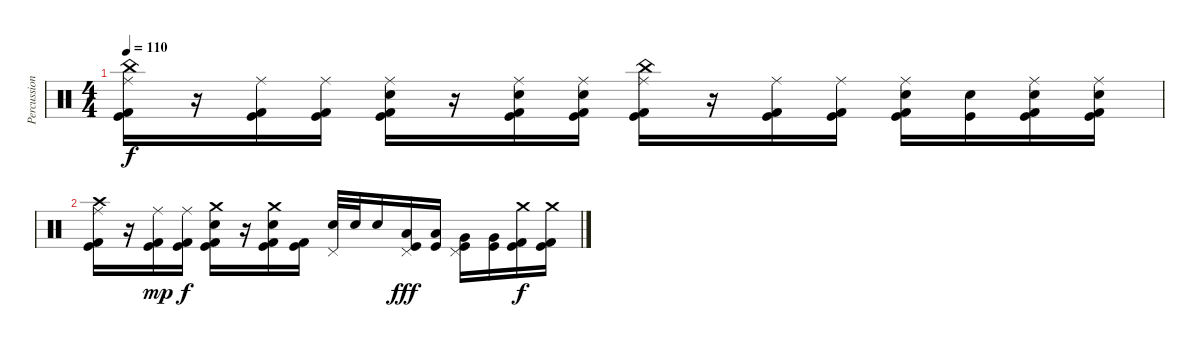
\track ("Percussion" "Percussion") {instrument percussion}
\staff {score}
\articulation defaults
\ts (4 4)
\tempo 110
\clef neutral
\ks c
("Ride (middle)" "China (hit)" "Kick (hit) 2" "Kick (hit)").16{dy f} r.16 ("Ride (middle)" "Kick (hit) 2" "Kick (hit)").16 ("Ride (middle)" "Kick (hit) 2" "Kick (hit)").16 ("Ride (middle)" "Snare (hit) 2" "Kick (hit) 2" "Kick (hit)").16 r.16 ("Ride (middle)" "Snare (hit) 2" "Kick (hit) 2" "Kick (hit)").16 ("Ride (middle)" "Snare (hit) 2" "Kick (hit) 2" "Kick (hit)").16 ("Ride (middle)" "China (hit)" "Kick (hit) 2" "Kick (hit)").16 r.16 ("Ride (middle)" "Kick (hit) 2" "Kick (hit)").16 ("Ride (middle)" "Kick (hit) 2" "Kick (hit)").16 ("Ride (middle)" "Snare (hit) 2" "Kick (hit) 2" "Kick (hit)").16 ("Snare (hit) 2" "Kick (hit)").16 ("Ride (middle)" "Snare (hit) 2" "Kick (hit) 2" "Kick (hit)").16 ("Ride (middle)" "Snare (hit) 2" "Kick (hit) 2" "Kick (hit)").16 |
("Ride (middle)" "Crash high (hit)" "Kick (hit) 2" "Kick (hit)").16 r.16 ("Ride (middle)" "Kick (hit) 2" "Kick (hit)").16{dy mp} ("Ride (middle)" "Kick (hit) 2" "Kick (hit)").16{dy f} ("Crash medium (hit)" "Snare (hit) 2" "Kick (hit) 2" "Kick (hit)").16 r.16 ("Crash medium (hit)" "Snare (hit) 2" "Kick (hit) 2" "Kick (hit)").16 ("Kick (hit) 2" "Kick (hit)").16 ("Pedal Hi-Hat (hit)" "Snare (hit) 2").32 "Snare (hit) 2".32 "Snare (hit) 2".16 ("Pedal Hi-Hat (hit)" "Low Tom (hit)" "Kick (hit)").16{dy fff} ("Low Tom (hit)" "Kick (hit)").16 ("Pedal Hi-Hat (hit)" "Very Low Tom (hit)" "Kick (hit)").16 ("Very Low Tom (hit)" "Kick (hit)").16 ("Crash medium (hit)" "Kick (hit) 2" "Kick (hit)").16{dy f} ("Crash medium (hit)" "Kick (hit) 2" "Kick (hit)").16
